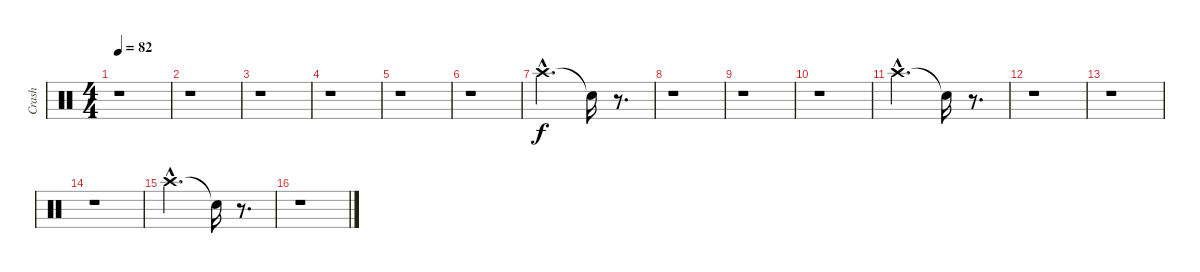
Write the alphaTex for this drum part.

\track ("Crash" "Crash") {instrument percussion}
\staff {score}
\articulation defaults
\ts (4 4)
\tempo 82
\clef neutral
\ks c
r.1{dy f} |
r.1 |
r.1 |
r.1 |
r.1 |
r.1 |
"Crash high (hit)"{hac}.2{d} "Snare (hit)"{t}.16 r.8{d} |
r.1 |
r.1 |
r.1 |
"Crash high (hit)"{hac}.2{d} "Snare (hit)"{t}.16 r.8{d} |
r.1 |
r.1 |
r.1 |
"Crash high (hit)"{hac}.2{d} "Snare (hit)"{t}.16 r.8{d} |
r.1
